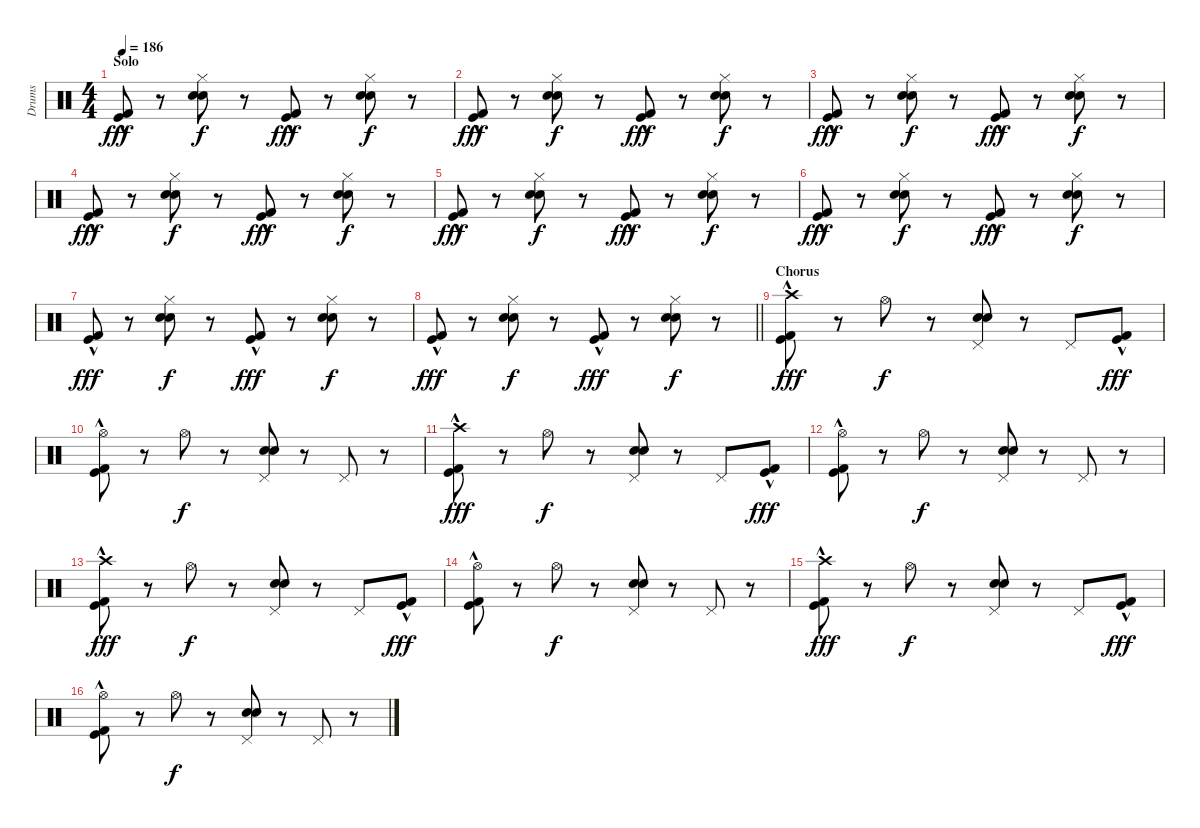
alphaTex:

\track ("Drums" "Drums") {instrument percussion}
\staff {score}
\articulation defaults
\ts (4 4)
\section ("" "Solo")
\tempo 186
\clef neutral
\ks c
("Kick (hit)"{hac} "Kick (hit) 2"{hac}).8{dy fff} r.8 ("Hi-Hat (closed)" "Snare (hit) 2" "Snare (hit) 2").8{dy f} r.8 ("Kick (hit)"{hac} "Kick (hit) 2"{hac}).8{dy fff} r.8 ("Hi-Hat (closed)" "Snare (hit) 2" "Snare (hit) 2").8{dy f} r.8 |
("Kick (hit)"{hac} "Kick (hit) 2"{hac}).8{dy fff} r.8 ("Hi-Hat (closed)" "Snare (hit) 2" "Snare (hit) 2").8{dy f} r.8 ("Kick (hit)"{hac} "Kick (hit) 2"{hac}).8{dy fff} r.8 ("Hi-Hat (closed)" "Snare (hit) 2" "Snare (hit) 2").8{dy f} r.8 |
("Kick (hit)"{hac} "Kick (hit) 2"{hac}).8{dy fff} r.8 ("Hi-Hat (closed)" "Snare (hit) 2" "Snare (hit) 2").8{dy f} r.8 ("Kick (hit)"{hac} "Kick (hit) 2"{hac}).8{dy fff} r.8 ("Hi-Hat (closed)" "Snare (hit) 2" "Snare (hit) 2").8{dy f} r.8 |
("Kick (hit)"{hac} "Kick (hit) 2"{hac}).8{dy fff} r.8 ("Hi-Hat (closed)" "Snare (hit) 2" "Snare (hit) 2").8{dy f} r.8 ("Kick (hit)"{hac} "Kick (hit) 2"{hac}).8{dy fff} r.8 ("Hi-Hat (closed)" "Snare (hit) 2" "Snare (hit) 2").8{dy f} r.8 |
("Kick (hit)"{hac} "Kick (hit) 2"{hac}).8{dy fff} r.8 ("Hi-Hat (closed)" "Snare (hit) 2" "Snare (hit) 2").8{dy f} r.8 ("Kick (hit)"{hac} "Kick (hit) 2"{hac}).8{dy fff} r.8 ("Hi-Hat (closed)" "Snare (hit) 2" "Snare (hit) 2").8{dy f} r.8 |
("Kick (hit)"{hac} "Kick (hit) 2"{hac}).8{dy fff} r.8 ("Hi-Hat (closed)" "Snare (hit) 2" "Snare (hit) 2").8{dy f} r.8 ("Kick (hit)"{hac} "Kick (hit) 2"{hac}).8{dy fff} r.8 ("Hi-Hat (closed)" "Snare (hit) 2" "Snare (hit) 2").8{dy f} r.8 |
("Kick (hit)"{hac} "Kick (hit) 2"{hac}).8{dy fff} r.8 ("Hi-Hat (closed)" "Snare (hit) 2" "Snare (hit) 2").8{dy f} r.8 ("Kick (hit)"{hac} "Kick (hit) 2"{hac}).8{dy fff} r.8 ("Hi-Hat (closed)" "Snare (hit) 2" "Snare (hit) 2").8{dy f} r.8 |
\barLineRight lightlight
("Kick (hit)"{hac} "Kick (hit) 2"{hac}).8{dy fff} r.8 ("Hi-Hat (closed)" "Snare (hit) 2" "Snare (hit) 2").8{dy f} r.8 ("Kick (hit)"{hac} "Kick (hit) 2"{hac}).8{dy fff} r.8 ("Hi-Hat (closed)" "Snare (hit) 2" "Snare (hit) 2").8{dy f} r.8 |
\section ("" "Chorus")
("Crash high (hit)" "Kick (hit)"{hac} "Kick (hit) 2"{hac}).8{dy fff} r.8 "Hi-Hat (open)".8{dy f} r.8 ("Pedal Hi-Hat (hit)" "Snare (hit) 2" "Snare (hit) 2").8 r.8 "Pedal Hi-Hat (hit)".8 ("Kick (hit)"{hac} "Kick (hit) 2"{hac}).8{dy fff} |
("Hi-Hat (open)" "Kick (hit)"{hac} "Kick (hit) 2"{hac}).8 r.8 "Hi-Hat (open)".8{dy f} r.8 ("Pedal Hi-Hat (hit)" "Snare (hit) 2" "Snare (hit) 2").8 r.8 "Pedal Hi-Hat (hit)".8 r.8 |
("Crash high (hit)" "Kick (hit)"{hac} "Kick (hit) 2"{hac}).8{dy fff} r.8 "Hi-Hat (open)".8{dy f} r.8 ("Pedal Hi-Hat (hit)" "Snare (hit) 2" "Snare (hit) 2").8 r.8 "Pedal Hi-Hat (hit)".8 ("Kick (hit)"{hac} "Kick (hit) 2"{hac}).8{dy fff} |
("Hi-Hat (open)" "Kick (hit)"{hac} "Kick (hit) 2"{hac}).8 r.8 "Hi-Hat (open)".8{dy f} r.8 ("Pedal Hi-Hat (hit)" "Snare (hit) 2" "Snare (hit) 2").8 r.8 "Pedal Hi-Hat (hit)".8 r.8 |
("Crash high (hit)" "Kick (hit)"{hac} "Kick (hit) 2"{hac}).8{dy fff} r.8 "Hi-Hat (open)".8{dy f} r.8 ("Pedal Hi-Hat (hit)" "Snare (hit) 2" "Snare (hit) 2").8 r.8 "Pedal Hi-Hat (hit)".8 ("Kick (hit)"{hac} "Kick (hit) 2"{hac}).8{dy fff} |
("Hi-Hat (open)" "Kick (hit)"{hac} "Kick (hit) 2"{hac}).8 r.8 "Hi-Hat (open)".8{dy f} r.8 ("Pedal Hi-Hat (hit)" "Snare (hit) 2" "Snare (hit) 2").8 r.8 "Pedal Hi-Hat (hit)".8 r.8 |
("Crash high (hit)" "Kick (hit)"{hac} "Kick (hit) 2"{hac}).8{dy fff} r.8 "Hi-Hat (open)".8{dy f} r.8 ("Pedal Hi-Hat (hit)" "Snare (hit) 2" "Snare (hit) 2").8 r.8 "Pedal Hi-Hat (hit)".8 ("Kick (hit)"{hac} "Kick (hit) 2"{hac}).8{dy fff} |
("Hi-Hat (open)" "Kick (hit)"{hac} "Kick (hit) 2"{hac}).8 r.8 "Hi-Hat (open)".8{dy f} r.8 ("Pedal Hi-Hat (hit)" "Snare (hit) 2" "Snare (hit) 2").8 r.8 "Pedal Hi-Hat (hit)".8 r.8
